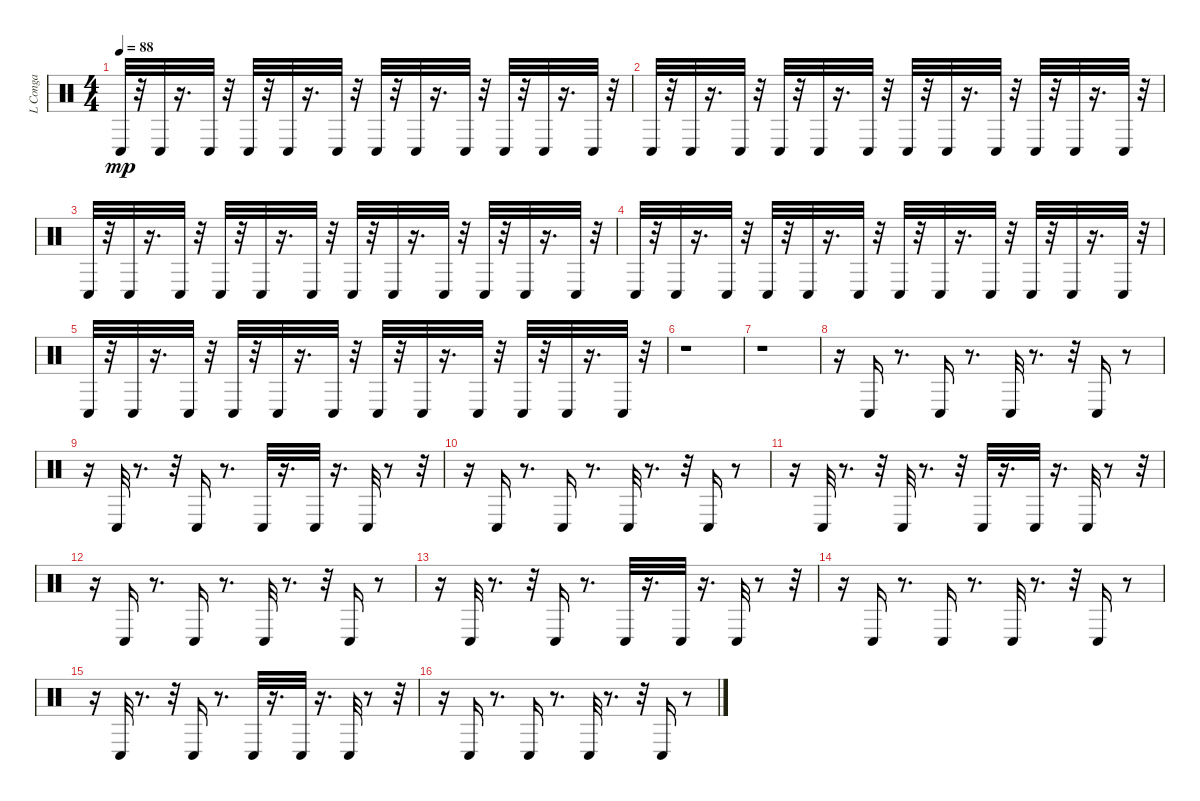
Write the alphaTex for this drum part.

\track ("L Conga" "L Conga") {instrument percussion}
\staff {score}
\articulation defaults
\ts (4 4)
\tempo 88
\clef neutral
\ks c "Conga low (hit)".32{dy mp}
r.32 "Conga low (hit)".32 r.16{d} "Conga low (hit)".32 r.32 "Conga low (hit)".32 r.32 "Conga low (hit)".32 r.16{d} "Conga low (hit)".32 r.32 "Conga low (hit)".32 r.32 "Conga low (hit)".32 r.16{d} "Conga low (hit)".32 r.32 "Conga low (hit)".32 r.32 "Conga low (hit)".32 r.16{d} "Conga low (hit)".32 r.32 |
"Conga low (hit)".32 r.32 "Conga low (hit)".32 r.16{d} "Conga low (hit)".32 r.32 "Conga low (hit)".32 r.32 "Conga low (hit)".32 r.16{d} "Conga low (hit)".32 r.32 "Conga low (hit)".32 r.32 "Conga low (hit)".32 r.16{d} "Conga low (hit)".32 r.32 "Conga low (hit)".32 r.32 "Conga low (hit)".32 r.16{d} "Conga low (hit)".32 r.32 |
"Conga low (hit)".32 r.32 "Conga low (hit)".32 r.16{d} "Conga low (hit)".32 r.32 "Conga low (hit)".32 r.32 "Conga low (hit)".32 r.16{d} "Conga low (hit)".32 r.32 "Conga low (hit)".32 r.32 "Conga low (hit)".32 r.16{d} "Conga low (hit)".32 r.32 "Conga low (hit)".32 r.32 "Conga low (hit)".32 r.16{d} "Conga low (hit)".32 r.32 |
"Conga low (hit)".32 r.32 "Conga low (hit)".32 r.16{d} "Conga low (hit)".32 r.32 "Conga low (hit)".32 r.32 "Conga low (hit)".32 r.16{d} "Conga low (hit)".32 r.32 "Conga low (hit)".32 r.32 "Conga low (hit)".32 r.16{d} "Conga low (hit)".32 r.32 "Conga low (hit)".32 r.32 "Conga low (hit)".32 r.16{d} "Conga low (hit)".32 r.32 |
"Conga low (hit)".32 r.32 "Conga low (hit)".32 r.16{d} "Conga low (hit)".32 r.32 "Conga low (hit)".32 r.32 "Conga low (hit)".32 r.16{d} "Conga low (hit)".32 r.32 "Conga low (hit)".32 r.32 "Conga low (hit)".32 r.16{d} "Conga low (hit)".32 r.32 "Conga low (hit)".32 r.32 "Conga low (hit)".32 r.16{d} "Conga low (hit)".32 r.32 |
r.1 |
r.1 |
r.16 "Conga low (hit)".16 r.8{d} "Conga low (hit)".16 r.8{d} "Conga low (hit)".32 r.8{d} r.32 "Conga low (hit)".16 r.8 |
r.16 "Conga low (hit)".32 r.8{d} r.32 "Conga low (hit)".16 r.8{d} "Conga low (hit)".32 r.16{d} "Conga low (hit)".32 r.16{d} "Conga low (hit)".32 r.8 r.32 |
r.16 "Conga low (hit)".16 r.8{d} "Conga low (hit)".16 r.8{d} "Conga low (hit)".32 r.8{d} r.32 "Conga low (hit)".16 r.8 |
r.16 "Conga low (hit)".32 r.8{d} r.32 "Conga low (hit)".32 r.8{d} r.32 "Conga low (hit)".32 r.16{d} "Conga low (hit)".32 r.16{d} "Conga low (hit)".32 r.8 r.32 |
r.16 "Conga low (hit)".16 r.8{d} "Conga low (hit)".16 r.8{d} "Conga low (hit)".32 r.8{d} r.32 "Conga low (hit)".16 r.8 |
r.16 "Conga low (hit)".32 r.8{d} r.32 "Conga low (hit)".16 r.8{d} "Conga low (hit)".32 r.16{d} "Conga low (hit)".32 r.16{d} "Conga low (hit)".32 r.8 r.32 |
r.16 "Conga low (hit)".16 r.8{d} "Conga low (hit)".16 r.8{d} "Conga low (hit)".32 r.8{d} r.32 "Conga low (hit)".16 r.8 |
r.16 "Conga low (hit)".32 r.8{d} r.32 "Conga low (hit)".16 r.8{d} "Conga low (hit)".32 r.16{d} "Conga low (hit)".32 r.16{d} "Conga low (hit)".32 r.8 r.32 |
r.16 "Conga low (hit)".16 r.8{d} "Conga low (hit)".16 r.8{d} "Conga low (hit)".32 r.8{d} r.32 "Conga low (hit)".16 r.8
